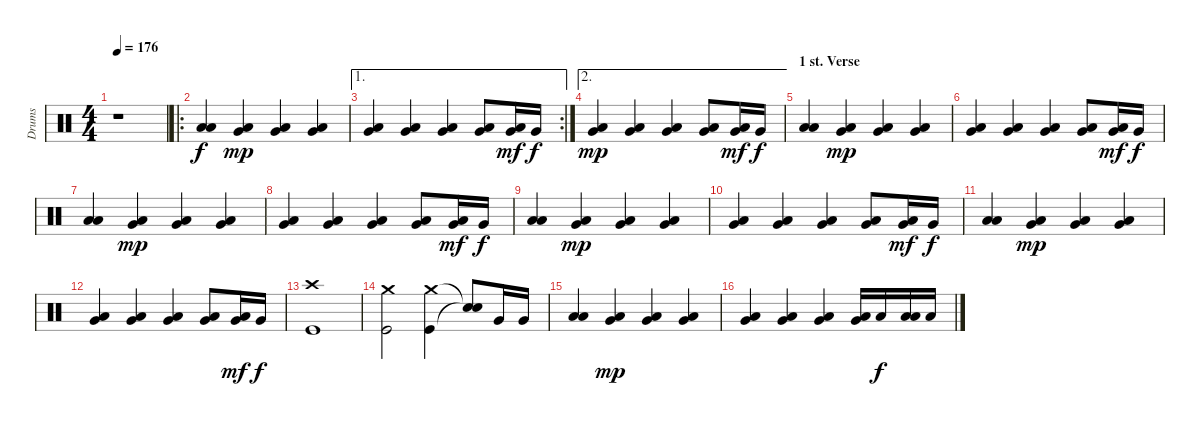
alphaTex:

\track ("Drums" "Drums") {instrument percussion}
\staff {score}
\articulation defaults
\ts (4 4)
\tempo 176
\clef neutral
\ks c
r.1{dy f} |
\ro
("Low Tom (hit)" "Low Floor Tom (hit)").4 ("Very Low Tom (hit)" "Low Floor Tom (hit)").4{dy mp} ("Very Low Tom (hit)" "Low Floor Tom (hit)").4 ("Very Low Tom (hit)" "Low Floor Tom (hit)").4 |
\ae 1
\rc 2
("Very Low Tom (hit)" "Low Floor Tom (hit)").4 ("Very Low Tom (hit)" "Low Floor Tom (hit)").4 ("Very Low Tom (hit)" "Low Floor Tom (hit)").4 ("Very Low Tom (hit)" "Low Floor Tom (hit)").8 ("Very Low Tom (hit)" "Low Floor Tom (hit)").16{dy mf} "Very Low Tom (hit)".16{dy f} |
\ae 2
("Very Low Tom (hit)" "Low Floor Tom (hit)").4{dy mp} ("Very Low Tom (hit)" "Low Floor Tom (hit)").4 ("Very Low Tom (hit)" "Low Floor Tom (hit)").4 ("Very Low Tom (hit)" "Low Floor Tom (hit)").8 ("Very Low Tom (hit)" "Low Floor Tom (hit)").16{dy mf} "Very Low Tom (hit)".16{dy f} |
\section ("" "1 st. Verse")
("Low Tom (hit)" "Low Floor Tom (hit)").4 ("Very Low Tom (hit)" "Low Floor Tom (hit)").4{dy mp} ("Very Low Tom (hit)" "Low Floor Tom (hit)").4 ("Very Low Tom (hit)" "Low Floor Tom (hit)").4 |
("Very Low Tom (hit)" "Low Floor Tom (hit)").4 ("Very Low Tom (hit)" "Low Floor Tom (hit)").4 ("Very Low Tom (hit)" "Low Floor Tom (hit)").4 ("Very Low Tom (hit)" "Low Floor Tom (hit)").8 ("Very Low Tom (hit)" "Low Floor Tom (hit)").16{dy mf} "Very Low Tom (hit)".16{dy f} |
("Low Tom (hit)" "Low Floor Tom (hit)").4 ("Very Low Tom (hit)" "Low Floor Tom (hit)").4{dy mp} ("Very Low Tom (hit)" "Low Floor Tom (hit)").4 ("Very Low Tom (hit)" "Low Floor Tom (hit)").4 |
("Very Low Tom (hit)" "Low Floor Tom (hit)").4 ("Very Low Tom (hit)" "Low Floor Tom (hit)").4 ("Very Low Tom (hit)" "Low Floor Tom (hit)").4 ("Very Low Tom (hit)" "Low Floor Tom (hit)").8 ("Very Low Tom (hit)" "Low Floor Tom (hit)").16{dy mf} "Very Low Tom (hit)".16{dy f} |
("Low Tom (hit)" "Low Floor Tom (hit)").4 ("Very Low Tom (hit)" "Low Floor Tom (hit)").4{dy mp} ("Very Low Tom (hit)" "Low Floor Tom (hit)").4 ("Very Low Tom (hit)" "Low Floor Tom (hit)").4 |
("Very Low Tom (hit)" "Low Floor Tom (hit)").4 ("Very Low Tom (hit)" "Low Floor Tom (hit)").4 ("Very Low Tom (hit)" "Low Floor Tom (hit)").4 ("Very Low Tom (hit)" "Low Floor Tom (hit)").8 ("Very Low Tom (hit)" "Low Floor Tom (hit)").16{dy mf} "Very Low Tom (hit)".16{dy f} |
("Low Tom (hit)" "Low Floor Tom (hit)").4 ("Very Low Tom (hit)" "Low Floor Tom (hit)").4{dy mp} ("Very Low Tom (hit)" "Low Floor Tom (hit)").4 ("Very Low Tom (hit)" "Low Floor Tom (hit)").4 |
("Very Low Tom (hit)" "Low Floor Tom (hit)").4 ("Very Low Tom (hit)" "Low Floor Tom (hit)").4 ("Very Low Tom (hit)" "Low Floor Tom (hit)").4 ("Very Low Tom (hit)" "Low Floor Tom (hit)").8 ("Very Low Tom (hit)" "Low Floor Tom (hit)").16{dy mf} "Very Low Tom (hit)".16{dy f} |
("Crash high (hit)" "Kick (hit)").1 |
("Crash medium (hit)" "Kick (hit)").2 ("Crash medium (hit)" "Kick (hit)").4 ("Snare (hit)"{t} "Snare (hit)"{t}).8 "Very Low Tom (hit)".16 "Very Low Tom (hit)".16 |
("Low Tom (hit)" "Low Floor Tom (hit)").4 ("Very Low Tom (hit)" "Low Floor Tom (hit)").4{dy mp} ("Very Low Tom (hit)" "Low Floor Tom (hit)").4 ("Very Low Tom (hit)" "Low Floor Tom (hit)").4 |
("Very Low Tom (hit)" "Low Floor Tom (hit)").4 ("Very Low Tom (hit)" "Low Floor Tom (hit)").4 ("Very Low Tom (hit)" "Low Floor Tom (hit)").4 ("Low Tom (hit)" "Very Low Tom (hit)").16 "Low Tom (hit)".16{dy f} ("Low Tom (hit)" "Low Floor Tom (hit)").16 "Low Tom (hit)".16
